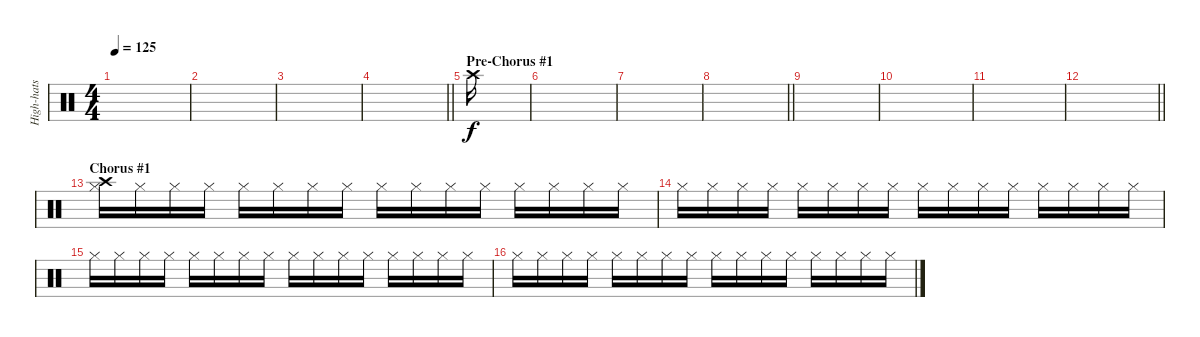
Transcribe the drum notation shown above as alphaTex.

\track ("High-hats" "High-hats") {instrument percussion}
\staff {score}
\articulation defaults
\ts (4 4)
\tempo 125
\clef neutral
\ks c
|
|
|
\barLineRight lightlight
|
\section ("" "Pre-Chorus #1")
"Crash high (hit)".16 |
|
|
\barLineRight lightlight
|
|
|
|
\barLineRight lightlight
|
\section ("" "Chorus #1")
("Hi-Hat (closed)" "Crash high (hit)").16 "Hi-Hat (closed)".16 "Hi-Hat (closed)".16 "Hi-Hat (closed)".16 "Hi-Hat (closed)".16 "Hi-Hat (closed)".16 "Hi-Hat (closed)".16 "Hi-Hat (closed)".16 "Hi-Hat (closed)".16 "Hi-Hat (closed)".16 "Hi-Hat (closed)".16 "Hi-Hat (closed)".16 "Hi-Hat (closed)".16 "Hi-Hat (closed)".16 "Hi-Hat (closed)".16 "Hi-Hat (closed)".16 |
"Hi-Hat (closed)".16 "Hi-Hat (closed)".16 "Hi-Hat (closed)".16 "Hi-Hat (closed)".16 "Hi-Hat (closed)".16 "Hi-Hat (closed)".16 "Hi-Hat (closed)".16 "Hi-Hat (closed)".16 "Hi-Hat (closed)".16 "Hi-Hat (closed)".16 "Hi-Hat (closed)".16 "Hi-Hat (closed)".16 "Hi-Hat (closed)".16 "Hi-Hat (closed)".16 "Hi-Hat (closed)".16 "Hi-Hat (closed)".16 |
"Hi-Hat (closed)".16 "Hi-Hat (closed)".16 "Hi-Hat (closed)".16 "Hi-Hat (closed)".16 "Hi-Hat (closed)".16 "Hi-Hat (closed)".16 "Hi-Hat (closed)".16 "Hi-Hat (closed)".16 "Hi-Hat (closed)".16 "Hi-Hat (closed)".16 "Hi-Hat (closed)".16 "Hi-Hat (closed)".16 "Hi-Hat (closed)".16 "Hi-Hat (closed)".16 "Hi-Hat (closed)".16 "Hi-Hat (closed)".16 |
"Hi-Hat (closed)".16 "Hi-Hat (closed)".16 "Hi-Hat (closed)".16 "Hi-Hat (closed)".16 "Hi-Hat (closed)".16 "Hi-Hat (closed)".16 "Hi-Hat (closed)".16 "Hi-Hat (closed)".16 "Hi-Hat (closed)".16 "Hi-Hat (closed)".16 "Hi-Hat (closed)".16 "Hi-Hat (closed)".16 "Hi-Hat (closed)".16 "Hi-Hat (closed)".16 "Hi-Hat (closed)".16 "Hi-Hat (closed)".16
